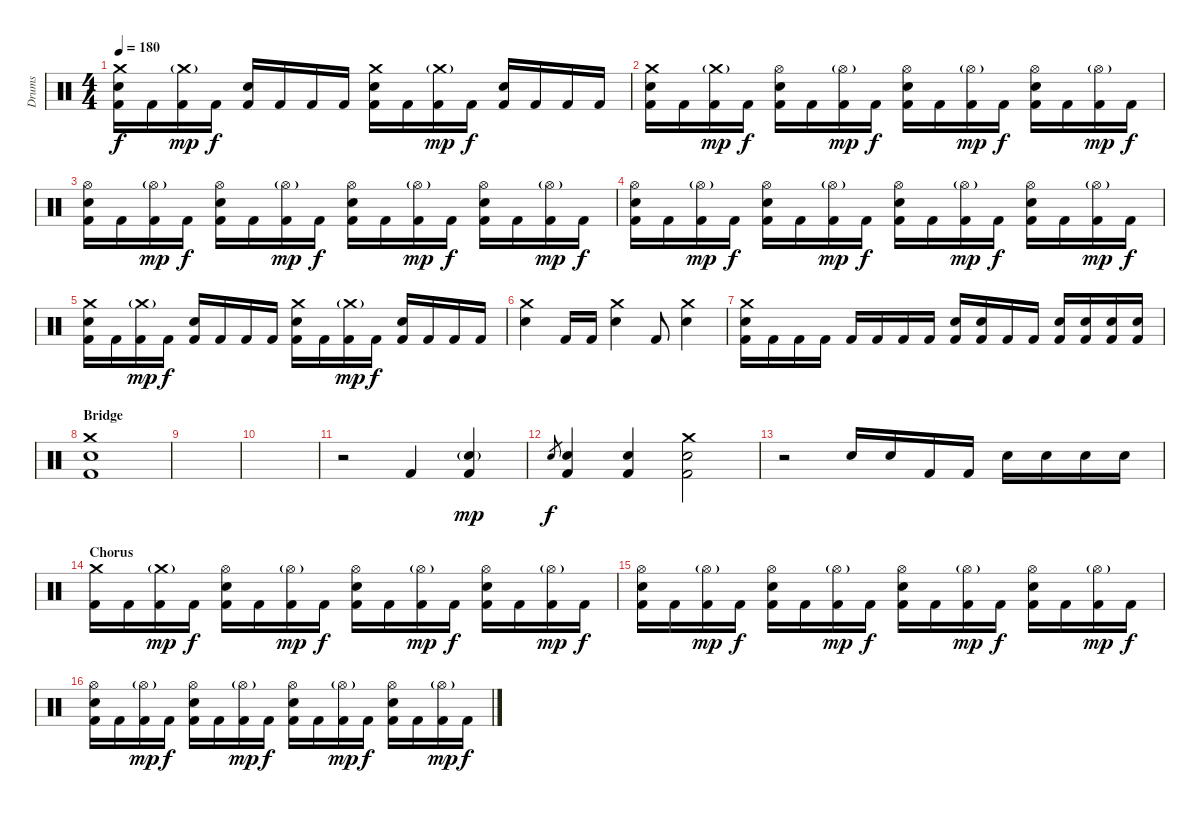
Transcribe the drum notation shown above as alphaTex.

\track ("Drums" "Drums") {instrument percussion}
\staff {score}
\articulation defaults
\ts (4 4)
\tempo 180
\clef neutral
\ks c
("Crash medium (hit)" "Electric Snare (hit)" "Kick (hit) 2").16{dy f} "Kick (hit) 2".16 ("Crash medium (hit)"{g} "Kick (hit) 2").16{dy mp} "Kick (hit) 2".16{dy f} ("Electric Snare (hit)" "Kick (hit) 2").16 "Kick (hit) 2".16 "Kick (hit) 2".16 "Kick (hit) 2".16 ("Crash medium (hit)" "Electric Snare (hit)" "Kick (hit) 2").16 "Kick (hit) 2".16 ("Crash medium (hit)"{g} "Kick (hit) 2").16{dy mp} "Kick (hit) 2".16{dy f} ("Electric Snare (hit)" "Kick (hit) 2").16 "Kick (hit) 2".16 "Kick (hit) 2".16 "Kick (hit) 2".16 |
("Crash medium (hit)" "Electric Snare (hit)" "Kick (hit) 2").16 "Kick (hit) 2".16 ("Crash medium (hit)"{g} "Kick (hit) 2").16{dy mp} "Kick (hit) 2".16{dy f} ("Hi-Hat (open)" "Electric Snare (hit)" "Kick (hit) 2").16 "Kick (hit) 2".16 ("Hi-Hat (open)"{g} "Kick (hit) 2").16{dy mp} "Kick (hit) 2".16{dy f} ("Hi-Hat (open)" "Electric Snare (hit)" "Kick (hit) 2").16 "Kick (hit) 2".16 ("Hi-Hat (open)"{g} "Kick (hit) 2").16{dy mp} "Kick (hit) 2".16{dy f} ("Hi-Hat (open)" "Electric Snare (hit)" "Kick (hit) 2").16 "Kick (hit) 2".16 ("Hi-Hat (open)"{g} "Kick (hit) 2").16{dy mp} "Kick (hit) 2".16{dy f} |
("Hi-Hat (open)" "Electric Snare (hit)" "Kick (hit) 2").16 "Kick (hit) 2".16 ("Hi-Hat (open)"{g} "Kick (hit) 2").16{dy mp} "Kick (hit) 2".16{dy f} ("Hi-Hat (open)" "Electric Snare (hit)" "Kick (hit) 2").16 "Kick (hit) 2".16 ("Hi-Hat (open)"{g} "Kick (hit) 2").16{dy mp} "Kick (hit) 2".16{dy f} ("Hi-Hat (open)" "Electric Snare (hit)" "Kick (hit) 2").16 "Kick (hit) 2".16 ("Hi-Hat (open)"{g} "Kick (hit) 2").16{dy mp} "Kick (hit) 2".16{dy f} ("Hi-Hat (open)" "Electric Snare (hit)" "Kick (hit) 2").16 "Kick (hit) 2".16 ("Hi-Hat (open)"{g} "Kick (hit) 2").16{dy mp} "Kick (hit) 2".16{dy f} |
("Hi-Hat (open)" "Electric Snare (hit)" "Kick (hit) 2").16 "Kick (hit) 2".16 ("Hi-Hat (open)"{g} "Kick (hit) 2").16{dy mp} "Kick (hit) 2".16{dy f} ("Hi-Hat (open)" "Electric Snare (hit)" "Kick (hit) 2").16 "Kick (hit) 2".16 ("Hi-Hat (open)"{g} "Kick (hit) 2").16{dy mp} "Kick (hit) 2".16{dy f} ("Hi-Hat (open)" "Electric Snare (hit)" "Kick (hit) 2").16 "Kick (hit) 2".16 ("Hi-Hat (open)"{g} "Kick (hit) 2").16{dy mp} "Kick (hit) 2".16{dy f} ("Hi-Hat (open)" "Electric Snare (hit)" "Kick (hit) 2").16 "Kick (hit) 2".16 ("Hi-Hat (open)"{g} "Kick (hit) 2").16{dy mp} "Kick (hit) 2".16{dy f} |
("Crash medium (hit)" "Electric Snare (hit)" "Kick (hit) 2").16 "Kick (hit) 2".16 ("Crash medium (hit)"{g} "Kick (hit) 2").16{dy mp} "Kick (hit) 2".16{dy f} ("Electric Snare (hit)" "Kick (hit) 2").16 "Kick (hit) 2".16 "Kick (hit) 2".16 "Kick (hit) 2".16 ("Crash medium (hit)" "Electric Snare (hit)" "Kick (hit) 2").16 "Kick (hit) 2".16 ("Crash medium (hit)"{g} "Kick (hit) 2").16{dy mp} "Kick (hit) 2".16{dy f} ("Electric Snare (hit)" "Kick (hit) 2").16 "Kick (hit) 2".16 "Kick (hit) 2".16 "Kick (hit) 2".16 |
("Crash medium (hit)" "Electric Snare (hit)").4 "Kick (hit) 2".16 "Kick (hit) 2".16 ("Crash medium (hit)" "Electric Snare (hit)").4 "Kick (hit) 2".8 ("Crash medium (hit)" "Electric Snare (hit)").4 |
("Crash medium (hit)" "Electric Snare (hit)" "Kick (hit) 2").16 "Kick (hit) 2".16 "Kick (hit) 2".16 "Kick (hit) 2".16 "Kick (hit) 2".16 "Kick (hit) 2".16 "Kick (hit) 2".16 "Kick (hit) 2".16 ("Electric Snare (hit)" "Kick (hit) 2").16 ("Electric Snare (hit)" "Kick (hit) 2").16 "Kick (hit) 2".16 "Kick (hit) 2".16 ("Electric Snare (hit)" "Kick (hit) 2").16 ("Electric Snare (hit)" "Kick (hit) 2").16 ("Electric Snare (hit)" "Kick (hit) 2").16 ("Electric Snare (hit)" "Kick (hit) 2").16 |
\section ("" "Bridge")
("Crash medium (hit)" "Electric Snare (hit)" "Kick (hit) 2").1 |
|
|
r.2 "Kick (hit) 2".4 ("Electric Snare (hit)"{g} "Kick (hit) 2").4{dy mp} |
"Electric Snare (hit)".8{gr dy f} ("Electric Snare (hit)" "Kick (hit) 2").4 ("Electric Snare (hit)" "Kick (hit) 2").4 ("Crash medium (hit)" "Electric Snare (hit)" "Kick (hit) 2").2 |
r.2 "Electric Snare (hit)".16 "Electric Snare (hit)".16 "Kick (hit) 2".16 "Kick (hit) 2".16 "Electric Snare (hit)".16 "Electric Snare (hit)".16 "Electric Snare (hit)".16 "Electric Snare (hit)".16 |
\section ("" "Chorus")
("Crash medium (hit)" "Kick (hit) 2").16 "Kick (hit) 2".16 ("Crash medium (hit)"{g} "Kick (hit) 2").16{dy mp} "Kick (hit) 2".16{dy f} ("Hi-Hat (open)" "Electric Snare (hit)" "Kick (hit) 2").16 "Kick (hit) 2".16 ("Hi-Hat (open)"{g} "Kick (hit) 2").16{dy mp} "Kick (hit) 2".16{dy f} ("Hi-Hat (open)" "Electric Snare (hit)" "Kick (hit) 2").16 "Kick (hit) 2".16 ("Hi-Hat (open)"{g} "Kick (hit) 2").16{dy mp} "Kick (hit) 2".16{dy f} ("Hi-Hat (open)" "Electric Snare (hit)" "Kick (hit) 2").16 "Kick (hit) 2".16 ("Hi-Hat (open)"{g} "Kick (hit) 2").16{dy mp} "Kick (hit) 2".16{dy f} |
("Hi-Hat (open)" "Electric Snare (hit)" "Kick (hit) 2").16 "Kick (hit) 2".16 ("Hi-Hat (open)"{g} "Kick (hit) 2").16{dy mp} "Kick (hit) 2".16{dy f} ("Hi-Hat (open)" "Electric Snare (hit)" "Kick (hit) 2").16 "Kick (hit) 2".16 ("Hi-Hat (open)"{g} "Kick (hit) 2").16{dy mp} "Kick (hit) 2".16{dy f} ("Hi-Hat (open)" "Electric Snare (hit)" "Kick (hit) 2").16 "Kick (hit) 2".16 ("Hi-Hat (open)"{g} "Kick (hit) 2").16{dy mp} "Kick (hit) 2".16{dy f} ("Hi-Hat (open)" "Electric Snare (hit)" "Kick (hit) 2").16 "Kick (hit) 2".16 ("Hi-Hat (open)"{g} "Kick (hit) 2").16{dy mp} "Kick (hit) 2".16{dy f} |
("Hi-Hat (open)" "Electric Snare (hit)" "Kick (hit) 2").16 "Kick (hit) 2".16 ("Hi-Hat (open)"{g} "Kick (hit) 2").16{dy mp} "Kick (hit) 2".16{dy f} ("Hi-Hat (open)" "Electric Snare (hit)" "Kick (hit) 2").16 "Kick (hit) 2".16 ("Hi-Hat (open)"{g} "Kick (hit) 2").16{dy mp} "Kick (hit) 2".16{dy f} ("Hi-Hat (open)" "Electric Snare (hit)" "Kick (hit) 2").16 "Kick (hit) 2".16 ("Hi-Hat (open)"{g} "Kick (hit) 2").16{dy mp} "Kick (hit) 2".16{dy f} ("Hi-Hat (open)" "Electric Snare (hit)" "Kick (hit) 2").16 "Kick (hit) 2".16 ("Hi-Hat (open)"{g} "Kick (hit) 2").16{dy mp} "Kick (hit) 2".16{dy f}
